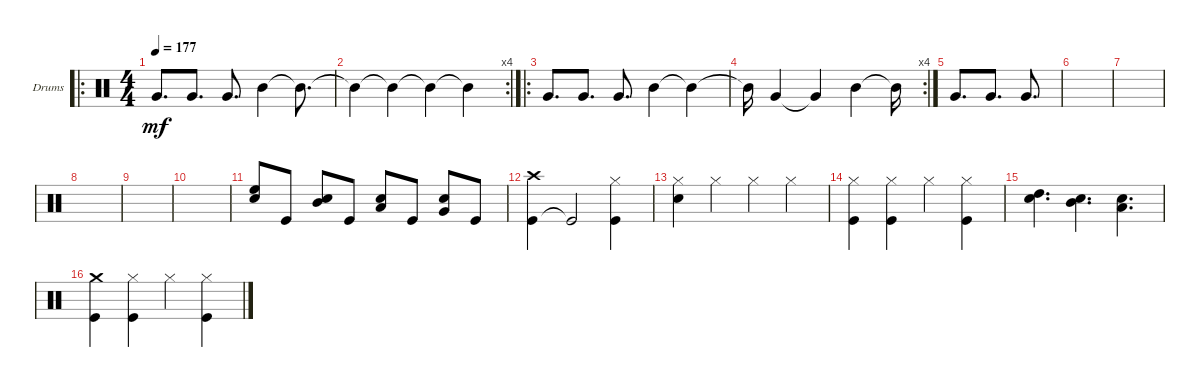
\defaultSystemsLayout 4
\bracketExtendMode groupsimilarinstruments
\firstSystemTrackNameOrientation horizontal
\otherSystemsTrackNameOrientation horizontal
\track ("Johnny Kelly" "Drums") {instrument percussion}
\staff {score}
\articulation defaults
\ro
\ts (4 4)
\tempo 177
\clef neutral
\ks c "Very Low Tom (hit)".8{d dy mf} "Very Low Tom (hit)".8{d} "Very Low Tom (hit)".8{d} "Mid Tom (hit)".4 "Mid Tom (hit)"{t}.8{d}
|
\rc 4 "Mid Tom (hit)"{t}.4 "Mid Tom (hit)"{t}.4 "Mid Tom (hit)"{t}.4 "Mid Tom (hit)"{t}.4
|
\ro "Very Low Tom (hit)".8{d} "Very Low Tom (hit)".8{d} "Very Low Tom (hit)".8{d} "Mid Tom (hit)".4 "Mid Tom (hit)"{t}.4
|
\rc 4 "Mid Tom (hit)"{t}.16 "Very Low Tom (hit)".4 "Very Low Tom (hit)"{t}.4 "Mid Tom (hit)".4 "Mid Tom (hit)"{t}.16
|
"Very Low Tom (hit)".8{d} "Very Low Tom (hit)".8{d} "Very Low Tom (hit)".8{d} |
|
|
|
|
|
("Snare (hit) 2" "High Floor Tom (hit)").8 "Kick (hit)".8 ("Snare (hit) 2" "Mid Tom (hit)").8 "Kick (hit)".8 ("Snare (hit) 2" "Low Tom (hit)").8 "Kick (hit)".8 ("Snare (hit) 2" "Very Low Tom (hit)").8 "Kick (hit)".8 |
("Kick (hit)" "Crash high (hit)").4 "Kick (hit)"{t}.2 ("Kick (hit)" "Hi-Hat (closed)").4 |
("Snare (hit) 2" "Hi-Hat (closed)").4 "Hi-Hat (closed)".4 "Hi-Hat (closed)".4 "Hi-Hat (closed)".4 |
("Kick (hit)" "Hi-Hat (closed)").4 ("Kick (hit)" "Hi-Hat (closed)").4 "Hi-Hat (closed)".4 ("Kick (hit)" "Hi-Hat (closed)").4 |
("Snare (hit) 2" "High Tom (hit)").4{d} ("Snare (hit) 2" "Mid Tom (hit)").4{d} ("Snare (hit) 2" "Low Tom (hit)").4{d} |
("Kick (hit)" "Crash medium (hit)").4 ("Kick (hit)" "Hi-Hat (closed)").4 "Hi-Hat (closed)".4 ("Kick (hit)" "Hi-Hat (closed)").4
